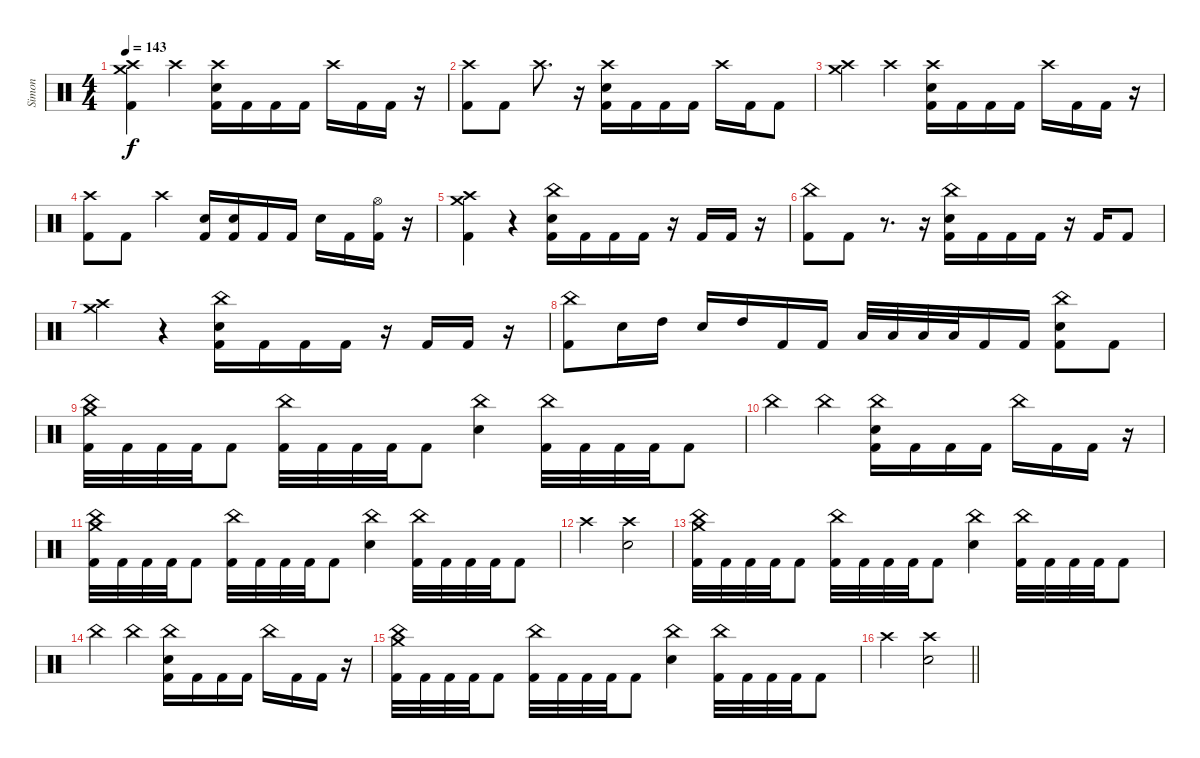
\track ("Simon" "Simon") {instrument percussion}
\staff {score}
\articulation defaults
\ts (4 4)
\section ("" "")
\tempo 143
\clef neutral
\ks c
("Crash high (hit)" "Crash medium (hit)" "Kick (hit) 2").4{dy f} "Crash high (hit)".4 ("Crash high (hit)" "Electric Snare (hit)" "Kick (hit) 2").16 "Kick (hit) 2".16 "Kick (hit) 2".16 "Kick (hit) 2".16 "Crash high (hit)".16 "Kick (hit) 2".16 "Kick (hit) 2".16 r.16 |
("Crash high (hit)" "Kick (hit) 2").8 "Kick (hit) 2".8 "Crash high (hit)".8{d} r.16 ("Crash high (hit)" "Electric Snare (hit)" "Kick (hit) 2").16 "Kick (hit) 2".16 "Kick (hit) 2".16 "Kick (hit) 2".16 "Crash high (hit)".16 "Kick (hit) 2".16 "Kick (hit) 2".8 |
("Crash high (hit)" "Crash medium (hit)").4 "Crash high (hit)".4 ("Crash high (hit)" "Electric Snare (hit)" "Kick (hit) 2").16 "Kick (hit) 2".16 "Kick (hit) 2".16 "Kick (hit) 2".16 "Crash high (hit)".16 "Kick (hit) 2".16 "Kick (hit) 2".16 r.16 |
("Crash high (hit)" "Kick (hit) 2").8 "Kick (hit) 2".8 "Crash high (hit)".4 ("Electric Snare (hit)" "Kick (hit) 2").16 ("Electric Snare (hit)" "Kick (hit) 2").16 "Kick (hit) 2".16 "Kick (hit) 2".16 "Electric Snare (hit)".16 "Kick (hit) 2".16 ("Hi-Hat (open)" "Kick (hit) 2").16 r.16 |
("Crash high (hit)" "Crash medium (hit)" "Kick (hit) 2").4 r.4 ("China (hit)" "Electric Snare (hit)" "Kick (hit) 2").16 "Kick (hit) 2".16 "Kick (hit) 2".16 "Kick (hit) 2".16 r.16 "Kick (hit) 2".16 "Kick (hit) 2".16 r.16 |
("China (hit)" "Kick (hit) 2").8 "Kick (hit) 2".8 r.8{d} r.16 ("China (hit)" "Electric Snare (hit)" "Kick (hit) 2").16 "Kick (hit) 2".16 "Kick (hit) 2".16 "Kick (hit) 2".16 r.16 "Kick (hit) 2".16 "Kick (hit) 2".8 |
("Crash high (hit)" "Crash medium (hit)").4 r.4 ("China (hit)" "Electric Snare (hit)" "Kick (hit) 2").16 "Kick (hit) 2".16 "Kick (hit) 2".16 "Kick (hit) 2".16 r.16 "Kick (hit) 2".16 "Kick (hit) 2".16 r.16 |
("China (hit)" "Kick (hit) 2").8 "Electric Snare (hit)".16 "High Tom (hit)".16 "Electric Snare (hit)".16 "High Tom (hit)".16 "Kick (hit) 2".16 "Kick (hit) 2".16 "Low Tom (hit)".32 "Low Tom (hit)".32 "Low Tom (hit)".32 "Low Tom (hit)".32 "Kick (hit) 2".16 "Kick (hit) 2".16 ("China (hit)" "Electric Snare (hit)" "Kick (hit) 2").8 "Kick (hit) 2".8 |
("China (hit)" "Crash medium (hit)" "Kick (hit) 2").32 "Kick (hit) 2".32 "Kick (hit) 2".32 "Kick (hit) 2".32 "Kick (hit) 2".8 ("China (hit)" "Kick (hit) 2").32 "Kick (hit) 2".32 "Kick (hit) 2".32 "Kick (hit) 2".32 "Kick (hit) 2".8 ("China (hit)" "Electric Snare (hit)").4 ("China (hit)" "Kick (hit) 2").32 "Kick (hit) 2".32 "Kick (hit) 2".32 "Kick (hit) 2".32 "Kick (hit) 2".8 |
"China (hit)".4 "China (hit)".4 ("China (hit)" "Electric Snare (hit)" "Kick (hit) 2").16 "Kick (hit) 2".16 "Kick (hit) 2".16 "Kick (hit) 2".16 "China (hit)".16 "Kick (hit) 2".16 "Kick (hit) 2".16 r.16 |
("China (hit)" "Crash medium (hit)" "Kick (hit) 2").32 "Kick (hit) 2".32 "Kick (hit) 2".32 "Kick (hit) 2".32 "Kick (hit) 2".8 ("China (hit)" "Kick (hit) 2").32 "Kick (hit) 2".32 "Kick (hit) 2".32 "Kick (hit) 2".32 "Kick (hit) 2".8 ("China (hit)" "Electric Snare (hit)").4 ("China (hit)" "Kick (hit) 2").32 "Kick (hit) 2".32 "Kick (hit) 2".32 "Kick (hit) 2".32 "Kick (hit) 2".8 |
"Crash high (hit)".2 ("Crash high (hit)" "Electric Snare (hit)").2 |
("China (hit)" "Crash medium (hit)" "Kick (hit) 2").32 "Kick (hit) 2".32 "Kick (hit) 2".32 "Kick (hit) 2".32 "Kick (hit) 2".8 ("China (hit)" "Kick (hit) 2").32 "Kick (hit) 2".32 "Kick (hit) 2".32 "Kick (hit) 2".32 "Kick (hit) 2".8 ("China (hit)" "Electric Snare (hit)").4 ("China (hit)" "Kick (hit) 2").32 "Kick (hit) 2".32 "Kick (hit) 2".32 "Kick (hit) 2".32 "Kick (hit) 2".8 |
"China (hit)".4 "China (hit)".4 ("China (hit)" "Electric Snare (hit)" "Kick (hit) 2").16 "Kick (hit) 2".16 "Kick (hit) 2".16 "Kick (hit) 2".16 "China (hit)".16 "Kick (hit) 2".16 "Kick (hit) 2".16 r.16 |
("China (hit)" "Crash medium (hit)" "Kick (hit) 2").32 "Kick (hit) 2".32 "Kick (hit) 2".32 "Kick (hit) 2".32 "Kick (hit) 2".8 ("China (hit)" "Kick (hit) 2").32 "Kick (hit) 2".32 "Kick (hit) 2".32 "Kick (hit) 2".32 "Kick (hit) 2".8 ("China (hit)" "Electric Snare (hit)").4 ("China (hit)" "Kick (hit) 2").32 "Kick (hit) 2".32 "Kick (hit) 2".32 "Kick (hit) 2".32 "Kick (hit) 2".8 |
\barLineRight lightlight "Crash high (hit)".2
("Crash high (hit)" "Electric Snare (hit)").2
